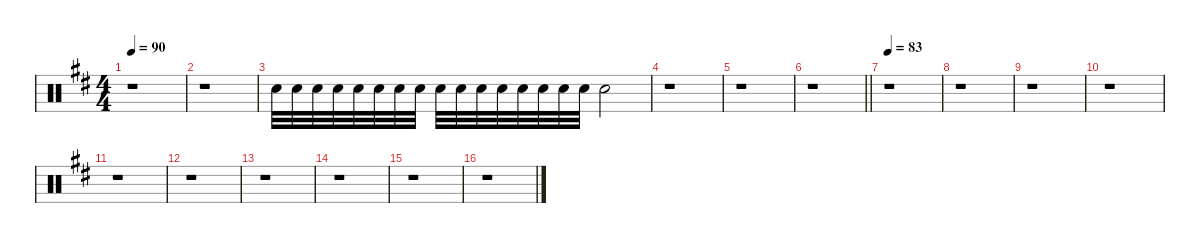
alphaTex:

\defaultSystemsLayout 4
\hideDynamics
\bracketExtendMode nobrackets
\singleTrackTrackNamePolicy hidden
\multiTrackTrackNamePolicy hidden
\firstSystemTrackNameMode fullname
\firstSystemTrackNameOrientation horizontal
\otherSystemsTrackNameOrientation horizontal
\track ("Percussions" "drm.") {defaultSystemsLayout 8 instrument percussion}
\staff {score}
\articulation defaults
\ts (4 4)
\tempo 90
\clef neutral
\ks bminor
r.1{dy ppp beam Down} |
r.1{beam Down} |
"Snare (hit) 2"{acc forcenatural}.32{beam Down} "Snare (hit) 2"{acc forcenatural}.32{beam Down} "Snare (hit) 2"{acc forcenatural}.32{beam Down} "Snare (hit) 2"{acc forcenatural}.32{dy pp beam Down} "Snare (hit) 2"{acc forcenatural}.32{beam Down} "Snare (hit) 2"{acc forcenatural}.32{beam Down} "Snare (hit) 2"{acc forcenatural}.32{beam Down} "Snare (hit) 2"{acc forcenatural}.32{beam Down} "Snare (hit) 2"{acc forcenatural}.32{beam Down} "Snare (hit) 2"{acc forcenatural}.32{dy p beam Down} "Snare (hit) 2"{acc forcenatural}.32{beam Down} "Snare (hit) 2"{acc forcenatural}.32{beam Down} "Snare (hit) 2"{acc forcenatural}.32{beam Down} "Snare (hit) 2"{acc forcenatural}.32{dy mp beam Down} "Snare (hit) 2"{acc forcenatural}.32{beam Down} "Snare (hit) 2"{acc forcenatural}.32{beam Down} "Snare (hit) 2"{acc forcenatural}.2{dy mf beam Down} |
r.1{beam Down} |
r.1{beam Down} |
\barLineRight lightlight
r.1{beam Down} |
\tempo 83
r.1{beam Down} |
r.1{beam Down} |
r.1{beam Down} |
r.1{beam Down} |
r.1{beam Down} |
r.1{beam Down} |
r.1{beam Down} |
r.1{beam Down} |
r.1{beam Down} |
r.1{beam Down}
